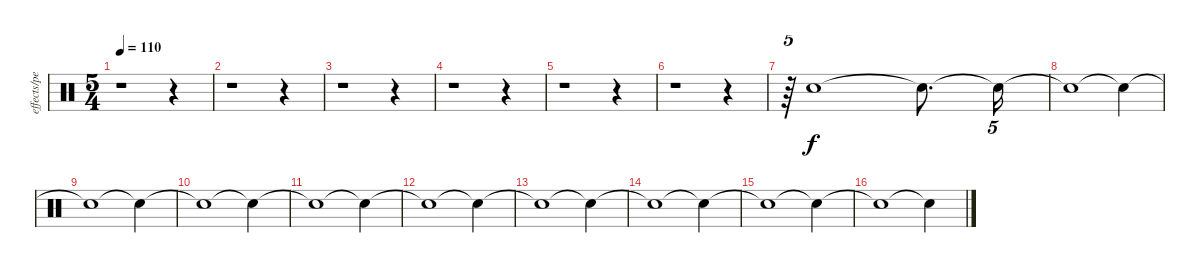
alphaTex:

\track ("effects/percussion" "effects/pe") {instrument percussion}
\staff {score}
\articulation defaults
\ts (5 4)
\tempo 110
\clef neutral
\ks c
r.1{dy f} r.4 |
r.1 r.4 |
r.1 r.4 |
r.1 r.4 |
r.1 r.4 |
r.1 r.4 |
r.64{tu (5 4)} "Snare (hit) 2".1{volume 6} "Snare (hit)"{t}.8{d} "Snare (hit)"{t}.16{tu (5 4)} |
"Snare (hit)"{t}.1 "Snare (hit)"{t}.4 |
"Snare (hit)"{t}.1 "Snare (hit)"{t}.4 |
"Snare (hit)"{t}.1 "Snare (hit)"{t}.4 |
"Snare (hit)"{t}.1 "Snare (hit)"{t}.4 |
"Snare (hit)"{t}.1 "Snare (hit)"{t}.4 |
"Snare (hit)"{t}.1 "Snare (hit)"{t}.4 |
"Snare (hit)"{t}.1 "Snare (hit)"{t}.4 |
"Snare (hit)"{t}.1 "Snare (hit)"{t}.4 |
"Snare (hit)"{t}.1 "Snare (hit)"{t}.4
